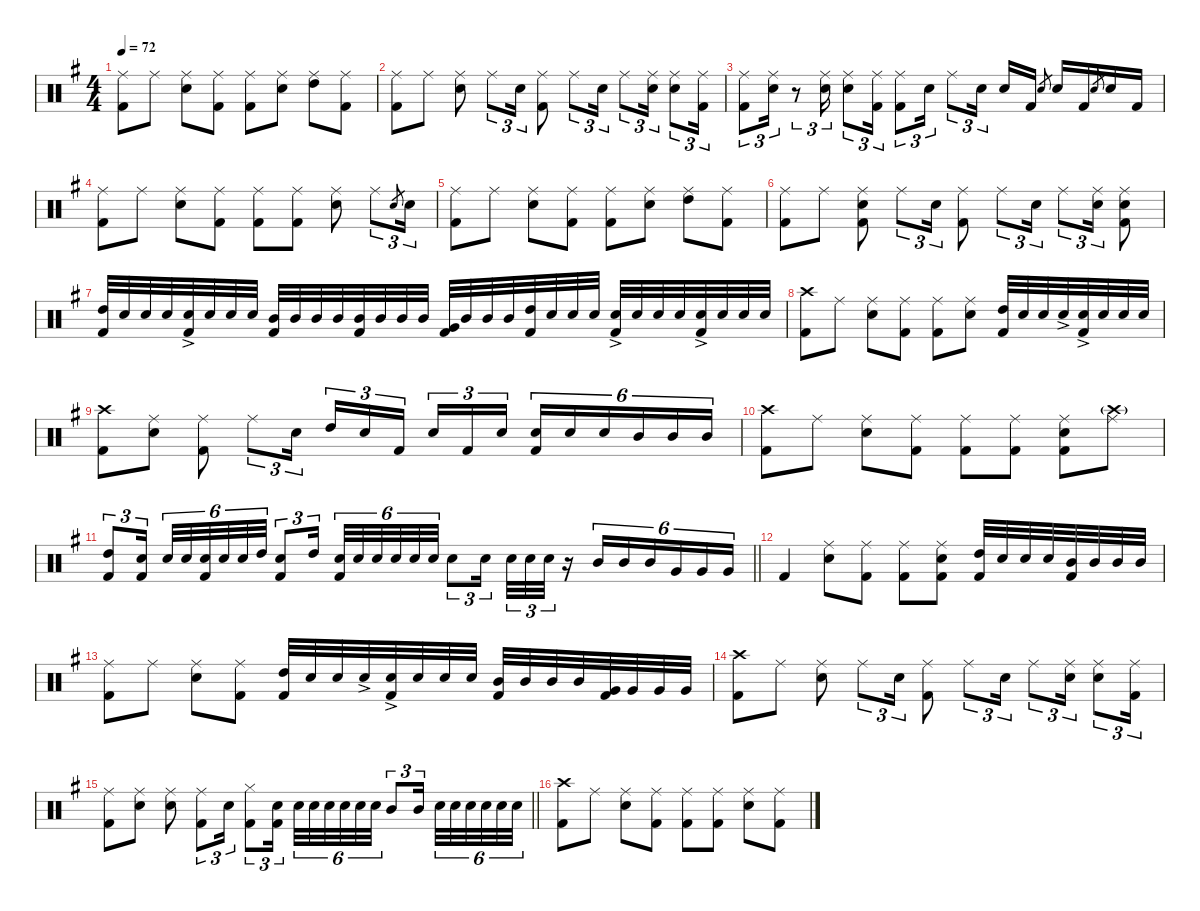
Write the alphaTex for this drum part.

\defaultSystemsLayout 4
\hideDynamics
\bracketExtendMode nobrackets
\singleTrackTrackNamePolicy hidden
\multiTrackTrackNamePolicy hidden
\otherSystemsTrackNameOrientation horizontal
\track ("Drums" "drm.") {instrument percussion}
\staff {score}
\articulation defaults
\ts (4 4)
\tempo 72
\clef neutral
\ks g
("Ride (middle)"{acc forcenatural} "Kick (hit) 2"{acc forcenatural}).8{dy f beam Down} "Ride (middle)"{acc forcenatural}.8{beam Down} ("Ride (middle)"{acc forcenatural} "Snare (hit) 2"{acc forcenatural}).8{beam Down} ("Ride (middle)"{acc forcenatural} "Kick (hit) 2"{acc forcenatural}).8{beam Down} ("Ride (middle)"{acc forcenatural} "Kick (hit) 2"{acc forcenatural}).8{beam Down} ("Ride (middle)"{acc forcenatural} "Snare (hit) 2"{acc forcenatural}).8{beam Down} ("Ride (middle)"{acc forcenatural} "High Tom (hit)"{acc forcenatural}).8{beam Down} ("Ride (middle)"{acc forcenatural} "Kick (hit) 2"{acc forcenatural}).8{beam Down} |
("Ride (middle)"{acc forcenatural} "Kick (hit) 2"{acc forcenatural}).8{beam Down} "Ride (middle)"{acc forcenatural}.8{beam Down} ("Ride (middle)"{acc forcenatural} "Snare (hit) 2"{acc forcenatural}).8{beam Down} "Ride (middle)"{acc forcenatural}.8{tu (3 2) beam Down} "Snare (hit) 2"{acc forcenatural}.16{tu (3 2) beam Down} ("Ride (middle)"{acc forcenatural} "Kick (hit) 2"{acc forcenatural}).8{beam Down} "Ride (middle)"{acc forcenatural}.8{tu (3 2) beam Down} "Snare (hit) 2"{acc forcenatural}.16{tu (3 2) beam Down} "Ride (middle)"{acc forcenatural}.8{tu (3 2) beam Down} ("Ride (middle)"{acc forcenatural} "Snare (hit) 2"{acc forcenatural}).16{tu (3 2) beam Down} ("Ride (middle)"{acc forcenatural} "Snare (hit) 2"{acc forcenatural}).8{tu (3 2) beam Down} ("Ride (middle)"{acc forcenatural} "Kick (hit) 2"{acc forcenatural}).16{tu (3 2) beam Down} |
("Ride (middle)"{acc forcenatural} "Kick (hit) 2"{acc forcenatural}).8{tu (3 2) beam Down} ("Ride (middle)"{acc forcenatural} "Snare (hit) 2"{acc forcenatural}).16{tu (3 2) beam Down} r.8{tu (3 2) beam Down} ("Ride (middle)"{acc forcenatural} "Snare (hit) 2"{acc forcenatural}).16{tu (3 2) beam Down} ("Ride (middle)"{acc forcenatural} "Snare (hit) 2"{acc forcenatural}).8{tu (3 2) beam Down} ("Ride (middle)"{acc forcenatural} "Kick (hit) 2"{acc forcenatural}).16{tu (3 2) beam Down} ("Ride (middle)"{acc forcenatural} "Kick (hit) 2"{acc forcenatural}).8{tu (3 2) beam Down} "Snare (hit) 2"{acc forcenatural}.16{tu (3 2) beam Down} "Ride (middle)"{acc forcenatural}.8{tu (3 2) beam Down} "Snare (hit) 2"{acc forcenatural}.16{tu (3 2) beam Down} "Snare (hit) 2"{acc forcenatural}.16{beam Up} "Kick (hit) 2"{acc forcenatural}.16{beam Up} "Electric Snare (hit)"{acc forcenatural}.8{gr dy p beam Up} "Snare (hit) 2"{acc forcenatural}.16{dy f beam Up} "Kick (hit) 2"{acc forcenatural}.16{beam Up} "Electric Snare (hit)"{acc forcenatural}.8{gr dy p beam Up} "Snare (hit) 2"{acc forcenatural}.16{dy f beam Up} "Kick (hit) 2"{acc forcenatural}.16{beam Up} |
("Ride (middle)"{acc forcenatural} "Kick (hit) 2"{acc forcenatural}).8{beam Down} "Ride (middle)"{acc forcenatural}.8{beam Down} ("Ride (middle)"{acc forcenatural} "Snare (hit) 2"{acc forcenatural}).8{beam Down} ("Ride (middle)"{acc forcenatural} "Kick (hit) 2"{acc forcenatural}).8{beam Down} ("Ride (middle)"{acc forcenatural} "Kick (hit) 2"{acc forcenatural}).8{beam Down} ("Ride (middle)"{acc forcenatural} "Kick (hit) 2"{acc forcenatural}).8{beam Down} ("Ride (middle)"{acc forcenatural} "Snare (hit) 2"{acc forcenatural}).8{beam Down} "Ride (middle)"{acc forcenatural}.8{tu (3 2) beam Down} "Electric Snare (hit)"{acc forcenatural}.8{gr dy p beam Up} "Snare (hit) 2"{acc forcenatural}.16{tu (3 2) dy f beam Down} |
("Ride (middle)"{acc forcenatural} "Kick (hit) 2"{acc forcenatural}).8{beam Down} "Ride (middle)"{acc forcenatural}.8{beam Down} ("Ride (middle)"{acc forcenatural} "Snare (hit) 2"{acc forcenatural}).8{beam Down} ("Ride (middle)"{acc forcenatural} "Kick (hit) 2"{acc forcenatural}).8{beam Down} ("Ride (middle)"{acc forcenatural} "Kick (hit) 2"{acc forcenatural}).8{beam Down} ("Ride (middle)"{acc forcenatural} "Snare (hit) 2"{acc forcenatural}).8{beam Down} ("Ride (middle)"{acc forcenatural} "High Tom (hit)"{acc forcenatural}).8{beam Down} ("Ride (middle)"{acc forcenatural} "Kick (hit) 2"{acc forcenatural}).8{beam Down} |
("Ride (middle)"{acc forcenatural} "Kick (hit) 2"{acc forcenatural}).8{beam Down} "Ride (middle)"{acc forcenatural}.8{beam Down} ("Ride (middle)"{acc forcenatural} "Snare (hit) 2"{acc forcenatural} "Kick (hit) 2"{acc forcenatural}).8{beam Down} "Ride (middle)"{acc forcenatural}.8{tu (3 2) beam Down} "Snare (hit) 2"{acc forcenatural}.16{tu (3 2) beam Down} ("Ride (middle)"{acc forcenatural} "Kick (hit) 2"{acc forcenatural}).8{beam Down} "Ride (middle)"{acc forcenatural}.8{tu (3 2) beam Down} "Snare (hit) 2"{acc forcenatural}.16{tu (3 2) beam Down} "Ride (middle)"{acc forcenatural}.8{tu (3 2) beam Down} ("Ride (middle)"{acc forcenatural} "Snare (hit) 2"{acc forcenatural}).16{tu (3 2) beam Down} ("Ride (middle)"{acc forcenatural} "Snare (hit) 2"{acc forcenatural} "Kick (hit) 2"{acc forcenatural}).8{beam Down} |
("High Tom (hit)"{acc forcenatural} "Kick (hit) 2"{acc forcenatural}).32{beam Up} "Snare (hit) 2"{acc forcenatural}.32{beam Up} "Snare (hit) 2"{acc forcenatural}.32{beam Up} "Snare (hit) 2"{acc forcenatural}.32{beam Up} ("Snare (hit) 2"{ac acc forcenatural} "Kick (hit) 2"{acc forcenatural}).32{beam Up} "Snare (hit) 2"{acc forcenatural}.32{beam Up} "Snare (hit) 2"{acc forcenatural}.32{beam Up} "Snare (hit) 2"{acc forcenatural}.32{beam Up} ("Mid Tom (hit)"{acc forcenatural} "Kick (hit) 2"{acc forcenatural}).32{beam Up} "Mid Tom (hit)"{acc forcenatural}.32{beam Up} "Mid Tom (hit)"{acc forcenatural}.32{beam Up} "Mid Tom (hit)"{acc forcenatural}.32{beam Up} ("Mid Tom (hit)"{acc forcenatural} "Kick (hit) 2"{acc forcenatural}).32{beam Up} "Mid Tom (hit)"{acc forcenatural}.32{beam Up} "Mid Tom (hit)"{acc forcenatural}.32{beam Up} "Mid Tom (hit)"{acc forcenatural}.32{beam Up} ("Very Low Tom (hit)"{acc forcenatural} "Kick (hit) 2"{acc forcenatural}).32{beam Up} "Mid Tom (hit)"{acc forcenatural}.32{beam Up} "Mid Tom (hit)"{acc forcenatural}.32{beam Up} "Mid Tom (hit)"{acc forcenatural}.32{beam Up} ("High Tom (hit)"{acc forcenatural} "Kick (hit) 2"{acc forcenatural}).32{beam Up} "Snare (hit) 2"{acc forcenatural}.32{beam Up} "Snare (hit) 2"{acc forcenatural}.32{beam Up} "Snare (hit) 2"{acc forcenatural}.32{beam Up} ("Snare (hit) 2"{ac acc forcenatural} "Kick (hit) 2"{acc forcenatural}).32{beam Up} "Snare (hit) 2"{acc forcenatural}.32{beam Up} "Snare (hit) 2"{acc forcenatural}.32{beam Up} "Snare (hit) 2"{acc forcenatural}.32{beam Up} ("Snare (hit) 2"{ac acc forcenatural} "Kick (hit) 2"{acc forcenatural}).32{beam Up} "Snare (hit) 2"{acc forcenatural}.32{beam Up} "Snare (hit) 2"{acc forcenatural}.32{beam Up} "Snare (hit) 2"{acc forcenatural}.32{beam Up} |
("Crash high (hit)"{acc forcenatural} "Kick (hit) 2"{acc forcenatural}).8{beam Down} "Ride (middle)"{acc forcenatural}.8{beam Down} ("Ride (middle)"{acc forcenatural} "Snare (hit) 2"{acc forcenatural}).8{beam Down} ("Ride (middle)"{acc forcenatural} "Kick (hit) 2"{acc forcenatural}).8{beam Down} ("Ride (middle)"{acc forcenatural} "Kick (hit) 2"{acc forcenatural}).8{beam Down} ("Ride (middle)"{acc forcenatural} "Snare (hit) 2"{acc forcenatural}).8{beam Down} ("High Tom (hit)"{acc forcenatural} "Kick (hit) 2"{acc forcenatural}).32{beam Up} "Snare (hit) 2"{acc forcenatural}.32{beam Up} "Snare (hit) 2"{acc forcenatural}.32{beam Up} "Snare (hit) 2"{ac acc forcenatural}.32{beam Up} ("Snare (hit) 2"{ac acc forcenatural} "Kick (hit) 2"{acc forcenatural}).32{beam Up} "Snare (hit) 2"{acc forcenatural}.32{beam Up} "Snare (hit) 2"{acc forcenatural}.32{beam Up} "Snare (hit) 2"{acc forcenatural}.32{beam Up} |
("Crash high (hit)"{acc forcenatural} "Kick (hit) 2"{acc forcenatural}).8{beam Down} ("Ride (middle)"{acc forcenatural} "Snare (hit) 2"{acc forcenatural}).8{beam Down} ("Ride (middle)"{acc forcenatural} "Kick (hit) 2"{acc forcenatural}).8{beam Down} "Ride (middle)"{acc forcenatural}.8{tu (3 2) beam Down} "Snare (hit) 2"{acc forcenatural}.16{tu (3 2) beam Down} "High Tom (hit)"{acc forcenatural}.16{tu (3 2) beam Up} "Snare (hit) 2"{acc forcenatural}.16{tu (3 2) beam Up} "Kick (hit) 2"{acc forcenatural}.16{tu (3 2) beam Up} "Snare (hit) 2"{acc forcenatural}.16{tu (3 2) beam Up} "Kick (hit) 2"{acc forcenatural}.16{tu (3 2) beam Up} "Snare (hit) 2"{acc forcenatural}.16{tu (3 2) beam Up} ("Snare (hit) 2"{acc forcenatural} "Kick (hit) 2"{acc forcenatural}).16{tu (6 4) beam Up} "Snare (hit) 2"{acc forcenatural}.16{tu (6 4) beam Up} "Snare (hit) 2"{acc forcenatural}.16{tu (6 4) beam Up} "Mid Tom (hit)"{acc forcenatural}.16{tu (6 4) beam Up} "Mid Tom (hit)"{acc forcenatural}.16{tu (6 4) beam Up} "Mid Tom (hit)"{acc forcenatural}.16{tu (6 4) beam Up} |
("Crash high (hit)"{acc forcenatural} "Kick (hit) 2"{acc forcenatural}).8{beam Down} "Ride (middle)"{acc forcenatural}.8{beam Down} ("Ride (middle)"{acc forcenatural} "Snare (hit) 2"{acc forcenatural}).8{beam Down} ("Ride (middle)"{acc forcenatural} "Kick (hit) 2"{acc forcenatural}).8{beam Down} ("Ride (middle)"{acc forcenatural} "Kick (hit) 2"{acc forcenatural}).8{beam Down} ("Ride (middle)"{acc forcenatural} "Kick (hit) 2"{acc forcenatural}).8{beam Down} ("Ride (middle)"{acc forcenatural} "Snare (hit) 2"{acc forcenatural} "Kick (hit) 2"{acc forcenatural}).8{beam Down} ("Crash high (hit)"{g acc forcenatural} "Ride (middle)"{acc forcenatural}).8{beam Down} |
\barLineRight lightlight
("High Tom (hit)"{acc forcenatural} "Kick (hit) 2"{acc forcenatural}).8{tu (3 2) beam Up} ("Snare (hit) 2"{acc forcenatural} "Kick (hit) 2"{acc forcenatural}).16{tu (3 2) beam Up} "Snare (hit) 2"{acc forcenatural}.32{tu (6 4) beam Up} "Snare (hit) 2"{acc forcenatural}.32{tu (6 4) beam Up} ("Snare (hit) 2"{acc forcenatural} "Kick (hit) 2"{acc forcenatural}).32{tu (6 4) beam Up} "Snare (hit) 2"{acc forcenatural}.32{tu (6 4) beam Up} "Snare (hit) 2"{acc forcenatural}.32{tu (6 4) beam Up} "High Tom (hit)"{acc forcenatural}.32{tu (6 4) beam Up} ("Snare (hit) 2"{acc forcenatural} "Kick (hit) 2"{acc forcenatural}).8{tu (3 2) beam Up} "High Tom (hit)"{acc forcenatural}.16{tu (3 2) beam Up} ("Snare (hit) 2"{acc forcenatural} "Kick (hit) 2"{acc forcenatural}).32{tu (6 4) beam Up} "Snare (hit) 2"{acc forcenatural}.32{tu (6 4) beam Up} "Snare (hit) 2"{acc forcenatural}.32{tu (6 4) beam Up} "Snare (hit) 2"{acc forcenatural}.32{tu (6 4) beam Up} "Snare (hit) 2"{acc forcenatural}.32{tu (6 4) beam Up} "Snare (hit) 2"{acc forcenatural}.32{tu (6 4) beam Up} "Snare (hit) 2"{acc forcenatural}.8{tu (3 2) beam Down} "Snare (hit) 2"{acc forcenatural}.16{tu (3 2) beam Down} "Snare (hit) 2"{acc forcenatural}.32{tu (3 2) beam Down} "Snare (hit) 2"{acc forcenatural}.32{tu (3 2) beam Down} "Snare (hit) 2"{acc forcenatural}.32{tu (3 2) beam Down} r.16{beam Down} "Mid Tom (hit)"{acc forcenatural}.16{tu (6 4) beam Up} "Mid Tom (hit)"{acc forcenatural}.16{tu (6 4) beam Up} "Mid Tom (hit)"{acc forcenatural}.16{tu (6 4) beam Up} "Very Low Tom (hit)"{acc forcenatural}.16{tu (6 4) beam Up} "Very Low Tom (hit)"{acc forcenatural}.16{tu (6 4) beam Up} "Very Low Tom (hit)"{acc forcenatural}.16{tu (6 4) beam Up} |
"Kick (hit) 2"{acc forcenatural}.4{beam Up} ("Ride (middle)"{acc forcenatural} "Snare (hit) 2"{acc forcenatural}).8{beam Down} ("Ride (middle)"{acc forcenatural} "Kick (hit) 2"{acc forcenatural}).8{beam Down} ("Ride (middle)"{acc forcenatural} "Kick (hit) 2"{acc forcenatural}).8{beam Down} ("Ride (middle)"{acc forcenatural} "Snare (hit) 2"{acc forcenatural} "Kick (hit) 2"{acc forcenatural}).8{beam Down} ("High Tom (hit)"{acc forcenatural} "Kick (hit) 2"{acc forcenatural}).32{beam Up} "Snare (hit) 2"{acc forcenatural}.32{beam Up} "Snare (hit) 2"{acc forcenatural}.32{beam Up} "Snare (hit) 2"{acc forcenatural}.32{beam Up} ("Mid Tom (hit)"{acc forcenatural} "Kick (hit) 2"{acc forcenatural}).32{beam Up} "Mid Tom (hit)"{acc forcenatural}.32{beam Up} "Mid Tom (hit)"{acc forcenatural}.32{beam Up} "Mid Tom (hit)"{acc forcenatural}.32{beam Up} |
("Ride (middle)"{acc forcenatural} "Kick (hit) 2"{acc forcenatural}).8{beam Down} "Ride (middle)"{acc forcenatural}.8{beam Down} ("Ride (middle)"{acc forcenatural} "Snare (hit) 2"{acc forcenatural}).8{beam Down} ("Ride (middle)"{acc forcenatural} "Kick (hit) 2"{acc forcenatural}).8{beam Down} ("High Tom (hit)"{acc forcenatural} "Kick (hit) 2"{acc forcenatural}).32{beam Up} "Snare (hit) 2"{acc forcenatural}.32{beam Up} "Snare (hit) 2"{acc forcenatural}.32{beam Up} "Snare (hit) 2"{ac acc forcenatural}.32{beam Up} ("Snare (hit) 2"{ac acc forcenatural} "Kick (hit) 2"{acc forcenatural}).32{beam Up} "Snare (hit) 2"{acc forcenatural}.32{beam Up} "Snare (hit) 2"{acc forcenatural}.32{beam Up} "Snare (hit) 2"{acc forcenatural}.32{beam Up} ("Mid Tom (hit)"{acc forcenatural} "Kick (hit) 2"{acc forcenatural}).32{beam Up} "Mid Tom (hit)"{acc forcenatural}.32{beam Up} "Mid Tom (hit)"{acc forcenatural}.32{beam Up} "Mid Tom (hit)"{acc forcenatural}.32{beam Up} ("Very Low Tom (hit)"{acc forcenatural} "Kick (hit) 2"{acc forcenatural}).32{beam Up} "Very Low Tom (hit)"{acc forcenatural}.32{beam Up} "Very Low Tom (hit)"{acc forcenatural}.32{beam Up} "Very Low Tom (hit)"{acc forcenatural}.32{beam Up} |
("Crash high (hit)"{acc forcenatural} "Kick (hit) 2"{acc forcenatural}).8{beam Down} "Ride (middle)"{acc forcenatural}.8{beam Down} ("Ride (middle)"{acc forcenatural} "Snare (hit) 2"{acc forcenatural}).8{beam Down} "Ride (middle)"{acc forcenatural}.8{tu (3 2) beam Down} "Snare (hit) 2"{acc forcenatural}.16{tu (3 2) beam Down} ("Ride (middle)"{acc forcenatural} "Kick (hit) 2"{acc forcenatural}).8{beam Down} "Ride (middle)"{acc forcenatural}.8{tu (3 2) beam Down} "Snare (hit) 2"{acc forcenatural}.16{tu (3 2) beam Down} "Ride (middle)"{acc forcenatural}.8{tu (3 2) beam Down} ("Ride (middle)"{acc forcenatural} "Snare (hit) 2"{acc forcenatural}).16{tu (3 2) beam Down} ("Ride (middle)"{acc forcenatural} "Snare (hit) 2"{acc forcenatural}).8{tu (3 2) beam Down} ("Ride (middle)"{acc forcenatural} "Kick (hit) 2"{acc forcenatural}).16{tu (3 2) beam Down} |
\barLineRight lightlight
("Ride (middle)"{acc forcenatural} "Kick (hit) 2"{acc forcenatural}).8{beam Down} ("Ride (middle)"{acc forcenatural} "Snare (hit) 2"{acc forcenatural}).8{beam Down} ("Ride (middle)"{acc forcenatural} "Snare (hit) 2"{acc forcenatural}).8{beam Down} ("Ride (middle)"{acc forcenatural} "Kick (hit) 2"{acc forcenatural}).8{tu (3 2) beam Down} "Snare (hit) 2"{acc forcenatural}.16{tu (3 2) beam Down} ("Hi-Hat (closed)"{acc forcenatural} "Kick (hit) 2"{acc forcenatural}).8{tu (3 2) beam Down} ("Snare (hit) 2"{acc forcenatural} "Kick (hit) 2"{acc forcenatural}).16{tu (3 2) beam Down} "Snare (hit) 2"{acc forcenatural}.32{tu (6 4) beam Down} "Snare (hit) 2"{acc forcenatural}.32{tu (6 4) beam Down} "Snare (hit) 2"{acc forcenatural}.32{tu (6 4) beam Down} "Snare (hit) 2"{acc forcenatural}.32{tu (6 4) beam Down} "Snare (hit) 2"{acc forcenatural}.32{tu (6 4) beam Down} "Snare (hit) 2"{acc forcenatural}.32{tu (6 4) beam Down} "Mid Tom (hit)"{acc forcenatural}.8{tu (3 2) beam Up} "Mid Tom (hit)"{acc forcenatural}.16{tu (3 2) beam Up} "Snare (hit) 2"{acc forcenatural}.32{tu (6 4) beam Down} "Snare (hit) 2"{acc forcenatural}.32{tu (6 4) beam Down} "Snare (hit) 2"{acc forcenatural}.32{tu (6 4) beam Down} "Snare (hit) 2"{acc forcenatural}.32{tu (6 4) beam Down} "Snare (hit) 2"{acc forcenatural}.32{tu (6 4) beam Down} "Snare (hit) 2"{acc forcenatural}.32{tu (6 4) beam Down} |
("Crash high (hit)"{acc forcenatural} "Kick (hit) 2"{acc forcenatural}).8{beam Down} "Ride (middle)"{acc forcenatural}.8{beam Down} ("Ride (middle)"{acc forcenatural} "Snare (hit) 2"{acc forcenatural}).8{beam Down} ("Ride (middle)"{acc forcenatural} "Kick (hit) 2"{acc forcenatural}).8{beam Down} ("Ride (middle)"{acc forcenatural} "Kick (hit) 2"{acc forcenatural}).8{beam Down} ("Ride (middle)"{acc forcenatural} "Kick (hit) 2"{acc forcenatural}).8{beam Down} ("Ride (middle)"{acc forcenatural} "Snare (hit) 2"{acc forcenatural}).8{beam Down} ("Ride (middle)"{acc forcenatural} "Kick (hit) 2"{acc forcenatural}).8{beam Down}
